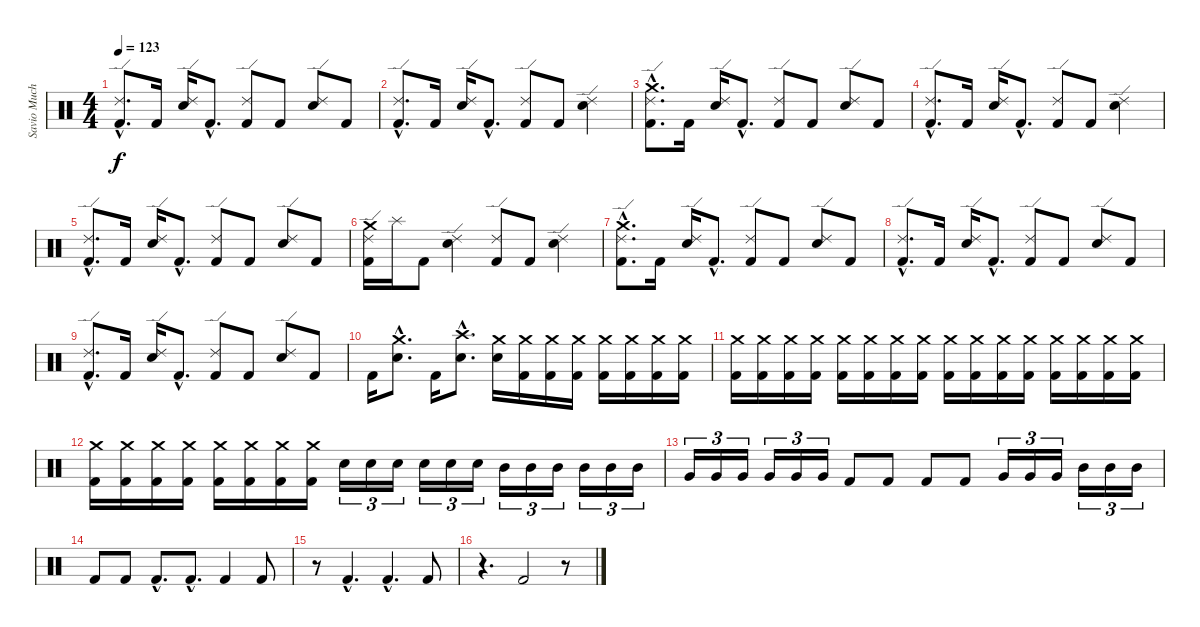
\track ("Savio Muchacho (Drums)" "Savio Much") {instrument percussion}
\staff {score}
\articulation defaults
\ts (4 4)
\tempo 123
\clef neutral
\ks c
("Ride (edge) 2"{hac} "Kick (hit) 2"{hac}).8{d dy f} "Kick (hit) 2".16 ("Ride (edge) 2" "Snare (hit) 2").16 "Kick (hit) 2"{hac}.8{d} ("Ride (edge) 2" "Kick (hit) 2").8 "Kick (hit) 2".8 ("Ride (edge) 2" "Snare (hit) 2").8 "Kick (hit) 2".8 |
("Ride (edge) 2"{hac} "Kick (hit) 2"{hac}).8{d} "Kick (hit) 2".16 ("Ride (edge) 2" "Snare (hit) 2").16 "Kick (hit) 2"{hac}.8{d} ("Ride (edge) 2" "Kick (hit) 2").8 "Kick (hit) 2".8 ("Ride (edge) 2" "Snare (hit) 2").4 |
("Ride (edge) 2"{hac} "Kick (hit) 2"{hac} "Crash medium (hit)"{hac}).8{d} "Kick (hit) 2".16 ("Ride (edge) 2" "Snare (hit) 2").16 "Kick (hit) 2"{hac}.8{d} ("Ride (edge) 2" "Kick (hit) 2").8 "Kick (hit) 2".8 ("Ride (edge) 2" "Snare (hit) 2").8 "Kick (hit) 2".8 |
("Ride (edge) 2"{hac} "Kick (hit) 2"{hac}).8{d} "Kick (hit) 2".16 ("Ride (edge) 2" "Snare (hit) 2").16 "Kick (hit) 2"{hac}.8{d} ("Ride (edge) 2" "Kick (hit) 2").8 "Kick (hit) 2".8 ("Ride (edge) 2" "Snare (hit) 2").4 |
("Ride (edge) 2"{hac} "Kick (hit) 2"{hac}).8{d} "Kick (hit) 2".16 ("Ride (edge) 2" "Snare (hit) 2").16 "Kick (hit) 2"{hac}.8{d} ("Ride (edge) 2" "Kick (hit) 2").8 "Kick (hit) 2".8 ("Ride (edge) 2" "Snare (hit) 2").8 "Kick (hit) 2".8 |
("Ride (edge) 2" "Kick (hit) 2" "Crash medium (hit)").16 "Splash (hit)".16 "Kick (hit) 2".8 ("Ride (edge) 2" "Snare (hit) 2").4 ("Ride (edge) 2" "Kick (hit) 2").8 "Kick (hit) 2".8 ("Ride (edge) 2" "Snare (hit) 2").4 |
("Ride (edge) 2"{hac} "Kick (hit) 2"{hac} "Crash medium (hit)"{hac}).8{d} "Kick (hit) 2".16 ("Ride (edge) 2" "Snare (hit) 2").16 "Kick (hit) 2"{hac}.8{d} ("Ride (edge) 2" "Kick (hit) 2").8 "Kick (hit) 2".8 ("Ride (edge) 2" "Snare (hit) 2").8 "Kick (hit) 2".8 |
("Ride (edge) 2"{hac} "Kick (hit) 2"{hac}).8{d} "Kick (hit) 2".16 ("Ride (edge) 2" "Snare (hit) 2").16 "Kick (hit) 2"{hac}.8{d} ("Ride (edge) 2" "Kick (hit) 2").8 "Kick (hit) 2".8 ("Ride (edge) 2" "Snare (hit) 2").8 "Kick (hit) 2".8 |
("Ride (edge) 2"{hac} "Kick (hit) 2"{hac}).8{d} "Kick (hit) 2".16 ("Ride (edge) 2" "Snare (hit) 2").16 "Kick (hit) 2"{hac}.8{d} ("Ride (edge) 2" "Kick (hit) 2").8 "Kick (hit) 2".8 ("Ride (edge) 2" "Snare (hit) 2").8 "Kick (hit) 2".8 |
"Kick (hit) 2".16 ("Snare (hit) 2"{hac} "Crash medium (hit)"{hac}).8{d} "Kick (hit) 2".16 ("Snare (hit) 2"{hac} "Crash high (hit)"{hac}).8{d} ("Snare (hit) 2" "Crash medium (hit)").16 ("Crash medium (hit)" "Kick (hit) 2").16 ("Crash medium (hit)" "Kick (hit) 2").16 ("Crash medium (hit)" "Kick (hit) 2").16 ("Crash medium (hit)" "Kick (hit) 2").16 ("Crash medium (hit)" "Kick (hit) 2").16 ("Crash medium (hit)" "Kick (hit) 2").16 ("Crash medium (hit)" "Kick (hit) 2").16 |
("Crash medium (hit)" "Kick (hit) 2").16 ("Crash medium (hit)" "Kick (hit) 2").16 ("Crash medium (hit)" "Kick (hit) 2").16 ("Crash medium (hit)" "Kick (hit) 2").16 ("Crash medium (hit)" "Kick (hit) 2").16 ("Crash medium (hit)" "Kick (hit) 2").16 ("Crash medium (hit)" "Kick (hit) 2").16 ("Crash medium (hit)" "Kick (hit) 2").16 ("Crash medium (hit)" "Kick (hit) 2").16 ("Crash medium (hit)" "Kick (hit) 2").16 ("Crash medium (hit)" "Kick (hit) 2").16 ("Crash medium (hit)" "Kick (hit) 2").16 ("Crash medium (hit)" "Kick (hit) 2").16 ("Crash medium (hit)" "Kick (hit) 2").16 ("Crash medium (hit)" "Kick (hit) 2").16 ("Crash medium (hit)" "Kick (hit) 2").16 |
("Crash medium (hit)" "Kick (hit) 2").16 ("Crash medium (hit)" "Kick (hit) 2").16 ("Crash medium (hit)" "Kick (hit) 2").16 ("Crash medium (hit)" "Kick (hit) 2").16 ("Crash medium (hit)" "Kick (hit) 2").16 ("Crash medium (hit)" "Kick (hit) 2").16 ("Crash medium (hit)" "Kick (hit) 2").16 ("Crash medium (hit)" "Kick (hit) 2").16 "Snare (hit) 2".16{tu (3 2)} "Snare (hit) 2".16{tu (3 2)} "Snare (hit) 2".16{tu (3 2)} "Snare (hit) 2".16{tu (3 2)} "Snare (hit) 2".16{tu (3 2)} "Snare (hit) 2".16{tu (3 2)} "Mid Tom (hit)".16{tu (3 2)} "Mid Tom (hit)".16{tu (3 2)} "Mid Tom (hit)".16{tu (3 2)} "Mid Tom (hit)".16{tu (3 2)} "Mid Tom (hit)".16{tu (3 2)} "Mid Tom (hit)".16{tu (3 2)} |
"Very Low Tom (hit)".16{tu (3 2)} "Very Low Tom (hit)".16{tu (3 2)} "Very Low Tom (hit)".16{tu (3 2)} "Very Low Tom (hit)".16{tu (3 2)} "Very Low Tom (hit)".16{tu (3 2)} "Very Low Tom (hit)".16{tu (3 2)} "Kick (hit) 2".8 "Kick (hit) 2".8 "Kick (hit) 2".8 "Kick (hit) 2".8 "Very Low Tom (hit)".16{tu (3 2)} "Very Low Tom (hit)".16{tu (3 2)} "Very Low Tom (hit)".16{tu (3 2)} "Mid Tom (hit)".16{tu (3 2)} "Mid Tom (hit)".16{tu (3 2)} "Mid Tom (hit)".16{tu (3 2)} |
"Kick (hit) 2".8 "Kick (hit) 2".8 "Kick (hit) 2"{hac}.8{d} "Kick (hit) 2"{hac}.8{d} "Kick (hit) 2".4 "Kick (hit) 2".8 |
r.8 "Kick (hit) 2"{hac}.4{d} "Kick (hit) 2"{hac}.4{d} "Kick (hit) 2".8 |
r.4{d} "Kick (hit) 2".2 r.8
